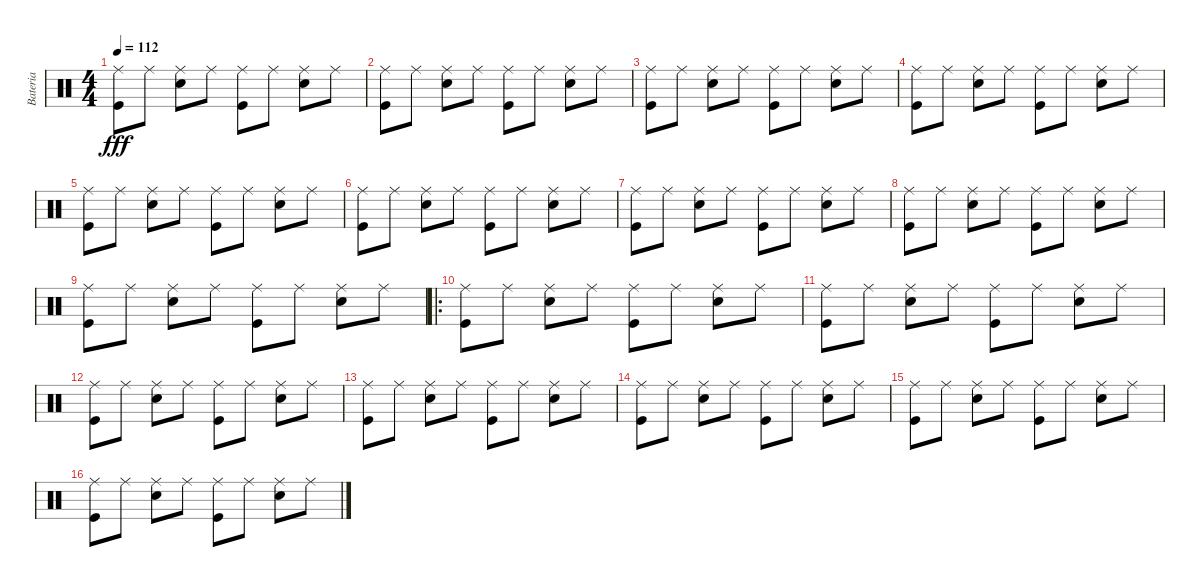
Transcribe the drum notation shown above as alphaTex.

\track ("Bateria" "Bateria") {instrument percussion}
\staff {score}
\articulation defaults
\ts (4 4)
\tempo 112
\clef neutral
\ks c
("Kick (hit)" "Ride (middle)").8{dy fff} "Ride (middle)".8 ("Ride (middle)" "Snare (hit) 2").8 "Ride (middle)".8 ("Kick (hit)" "Ride (middle)").8 "Ride (middle)".8 ("Ride (middle)" "Snare (hit) 2").8 "Ride (middle)".8 |
("Kick (hit)" "Ride (middle)").8 "Ride (middle)".8 ("Ride (middle)" "Snare (hit) 2").8 "Ride (middle)".8 ("Kick (hit)" "Ride (middle)").8 "Ride (middle)".8 ("Ride (middle)" "Snare (hit) 2").8 "Ride (middle)".8 |
("Kick (hit)" "Ride (middle)").8 "Ride (middle)".8 ("Ride (middle)" "Snare (hit) 2").8 "Ride (middle)".8 ("Kick (hit)" "Ride (middle)").8 "Ride (middle)".8 ("Ride (middle)" "Snare (hit) 2").8 "Ride (middle)".8 |
("Kick (hit)" "Ride (middle)").8 "Ride (middle)".8 ("Ride (middle)" "Snare (hit) 2").8 "Ride (middle)".8 ("Kick (hit)" "Ride (middle)").8 "Ride (middle)".8 ("Ride (middle)" "Snare (hit) 2").8 "Ride (middle)".8 |
("Kick (hit)" "Ride (middle)").8 "Ride (middle)".8 ("Ride (middle)" "Snare (hit) 2").8 "Ride (middle)".8 ("Kick (hit)" "Ride (middle)").8 "Ride (middle)".8 ("Ride (middle)" "Snare (hit) 2").8 "Ride (middle)".8 |
("Kick (hit)" "Ride (middle)").8 "Ride (middle)".8 ("Ride (middle)" "Snare (hit) 2").8 "Ride (middle)".8 ("Kick (hit)" "Ride (middle)").8 "Ride (middle)".8 ("Ride (middle)" "Snare (hit) 2").8 "Ride (middle)".8 |
("Kick (hit)" "Ride (middle)").8 "Ride (middle)".8 ("Ride (middle)" "Snare (hit) 2").8 "Ride (middle)".8 ("Kick (hit)" "Ride (middle)").8 "Ride (middle)".8 ("Ride (middle)" "Snare (hit) 2").8 "Ride (middle)".8 |
("Kick (hit)" "Ride (middle)").8 "Ride (middle)".8 ("Ride (middle)" "Snare (hit) 2").8 "Ride (middle)".8 ("Kick (hit)" "Ride (middle)").8 "Ride (middle)".8 ("Ride (middle)" "Snare (hit) 2").8 "Ride (middle)".8 |
("Kick (hit)" "Ride (middle)").8 "Ride (middle)".8 ("Ride (middle)" "Snare (hit) 2").8 "Ride (middle)".8 ("Kick (hit)" "Ride (middle)").8 "Ride (middle)".8 ("Ride (middle)" "Snare (hit) 2").8 "Ride (middle)".8 |
\ro
("Kick (hit)" "Ride (middle)").8 "Ride (middle)".8 ("Ride (middle)" "Snare (hit) 2").8 "Ride (middle)".8 ("Kick (hit)" "Ride (middle)").8 "Ride (middle)".8 ("Ride (middle)" "Snare (hit) 2").8 "Ride (middle)".8 |
("Kick (hit)" "Ride (middle)").8 "Ride (middle)".8 ("Ride (middle)" "Snare (hit) 2").8 "Ride (middle)".8 ("Kick (hit)" "Ride (middle)").8 "Ride (middle)".8 ("Ride (middle)" "Snare (hit) 2").8 "Ride (middle)".8 |
("Kick (hit)" "Ride (middle)").8 "Ride (middle)".8 ("Ride (middle)" "Snare (hit) 2").8 "Ride (middle)".8 ("Kick (hit)" "Ride (middle)").8 "Ride (middle)".8 ("Ride (middle)" "Snare (hit) 2").8 "Ride (middle)".8 |
("Kick (hit)" "Ride (middle)").8 "Ride (middle)".8 ("Ride (middle)" "Snare (hit) 2").8 "Ride (middle)".8 ("Kick (hit)" "Ride (middle)").8 "Ride (middle)".8 ("Ride (middle)" "Snare (hit) 2").8 "Ride (middle)".8 |
("Kick (hit)" "Ride (middle)").8 "Ride (middle)".8 ("Ride (middle)" "Snare (hit) 2").8 "Ride (middle)".8 ("Kick (hit)" "Ride (middle)").8 "Ride (middle)".8 ("Ride (middle)" "Snare (hit) 2").8 "Ride (middle)".8 |
("Kick (hit)" "Ride (middle)").8 "Ride (middle)".8 ("Ride (middle)" "Snare (hit) 2").8 "Ride (middle)".8 ("Kick (hit)" "Ride (middle)").8 "Ride (middle)".8 ("Ride (middle)" "Snare (hit) 2").8 "Ride (middle)".8 |
("Kick (hit)" "Ride (middle)").8 "Ride (middle)".8 ("Ride (middle)" "Snare (hit) 2").8 "Ride (middle)".8 ("Kick (hit)" "Ride (middle)").8 "Ride (middle)".8 ("Ride (middle)" "Snare (hit) 2").8 "Ride (middle)".8
